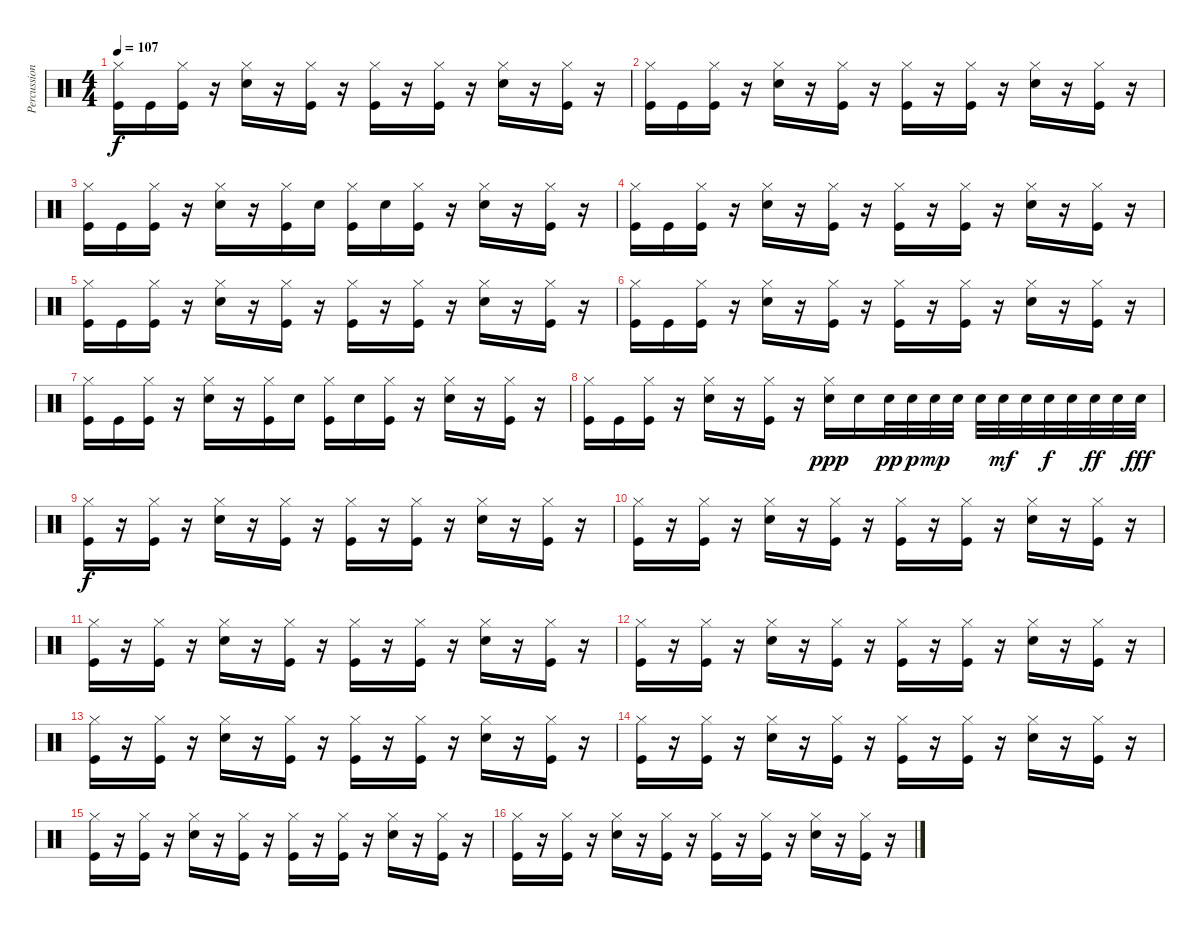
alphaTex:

\track ("Percussions" "Percussion") {instrument percussion}
\staff {score}
\articulation defaults
\ts (4 4)
\tempo 107
\clef neutral
\ks c
("Hi-Hat (closed)" "Kick (hit)").16{dy f} "Kick (hit)".16 ("Hi-Hat (closed)" "Kick (hit)").16 r.16 ("Hi-Hat (closed)" "Electric Snare (hit)").16 r.16 ("Hi-Hat (closed)" "Kick (hit)").16 r.16 ("Hi-Hat (closed)" "Kick (hit)").16 r.16 ("Hi-Hat (closed)" "Kick (hit)").16 r.16 ("Hi-Hat (closed)" "Electric Snare (hit)").16 r.16 ("Hi-Hat (closed)" "Kick (hit)").16 r.16 |
("Hi-Hat (closed)" "Kick (hit)").16 "Kick (hit)".16 ("Hi-Hat (closed)" "Kick (hit)").16 r.16 ("Hi-Hat (closed)" "Electric Snare (hit)").16 r.16 ("Hi-Hat (closed)" "Kick (hit)").16 r.16 ("Hi-Hat (closed)" "Kick (hit)").16 r.16 ("Hi-Hat (closed)" "Kick (hit)").16 r.16 ("Hi-Hat (closed)" "Electric Snare (hit)").16 r.16 ("Hi-Hat (closed)" "Kick (hit)").16 r.16 |
("Hi-Hat (closed)" "Kick (hit)").16 "Kick (hit)".16 ("Hi-Hat (closed)" "Kick (hit)").16 r.16 ("Hi-Hat (closed)" "Electric Snare (hit)").16 r.16 ("Hi-Hat (closed)" "Kick (hit)").16 "Electric Snare (hit)".16 ("Hi-Hat (closed)" "Kick (hit)").16 "Electric Snare (hit)".16 ("Hi-Hat (closed)" "Kick (hit)").16 r.16 ("Hi-Hat (closed)" "Electric Snare (hit)").16 r.16 ("Hi-Hat (closed)" "Kick (hit)").16 r.16 |
("Hi-Hat (closed)" "Kick (hit)").16 "Kick (hit)".16 ("Hi-Hat (closed)" "Kick (hit)").16 r.16 ("Hi-Hat (closed)" "Electric Snare (hit)").16 r.16 ("Hi-Hat (closed)" "Kick (hit)").16 r.16 ("Hi-Hat (closed)" "Kick (hit)").16 r.16 ("Hi-Hat (closed)" "Kick (hit)").16 r.16 ("Hi-Hat (closed)" "Electric Snare (hit)").16 r.16 ("Hi-Hat (closed)" "Kick (hit)").16 r.16 |
("Hi-Hat (closed)" "Kick (hit)").16 "Kick (hit)".16 ("Hi-Hat (closed)" "Kick (hit)").16 r.16 ("Hi-Hat (closed)" "Electric Snare (hit)").16 r.16 ("Hi-Hat (closed)" "Kick (hit)").16 r.16 ("Hi-Hat (closed)" "Kick (hit)").16 r.16 ("Hi-Hat (closed)" "Kick (hit)").16 r.16 ("Hi-Hat (closed)" "Electric Snare (hit)").16 r.16 ("Hi-Hat (closed)" "Kick (hit)").16 r.16 |
("Hi-Hat (closed)" "Kick (hit)").16 "Kick (hit)".16 ("Hi-Hat (closed)" "Kick (hit)").16 r.16 ("Hi-Hat (closed)" "Electric Snare (hit)").16 r.16 ("Hi-Hat (closed)" "Kick (hit)").16 r.16 ("Hi-Hat (closed)" "Kick (hit)").16 r.16 ("Hi-Hat (closed)" "Kick (hit)").16 r.16 ("Hi-Hat (closed)" "Electric Snare (hit)").16 r.16 ("Hi-Hat (closed)" "Kick (hit)").16 r.16 |
("Hi-Hat (closed)" "Kick (hit)").16 "Kick (hit)".16 ("Hi-Hat (closed)" "Kick (hit)").16 r.16 ("Hi-Hat (closed)" "Electric Snare (hit)").16 r.16 ("Hi-Hat (closed)" "Kick (hit)").16 "Electric Snare (hit)".16 ("Hi-Hat (closed)" "Kick (hit)").16 "Electric Snare (hit)".16 ("Hi-Hat (closed)" "Kick (hit)").16 r.16 ("Hi-Hat (closed)" "Electric Snare (hit)").16 r.16 ("Hi-Hat (closed)" "Kick (hit)").16 r.16 |
("Hi-Hat (closed)" "Kick (hit)").16 "Kick (hit)".16 ("Hi-Hat (closed)" "Kick (hit)").16 r.16 ("Hi-Hat (closed)" "Electric Snare (hit)").16 r.16 ("Hi-Hat (closed)" "Kick (hit)").16 r.16 ("Hi-Hat (closed)" "Electric Snare (hit)").16{dy ppp} "Electric Snare (hit)".16 "Electric Snare (hit)".32{dy pp} "Electric Snare (hit)".32{dy p} "Electric Snare (hit)".32{dy mp} "Electric Snare (hit)".32 "Electric Snare (hit)".32 "Electric Snare (hit)".32{dy mf} "Electric Snare (hit)".32 "Electric Snare (hit)".32{dy f} "Electric Snare (hit)".32 "Electric Snare (hit)".32{dy ff} "Electric Snare (hit)".32 "Electric Snare (hit)".32{dy fff} |
("Hi-Hat (closed)" "Kick (hit)").16{dy f} r.16 ("Hi-Hat (closed)" "Kick (hit)").16 r.16 ("Hi-Hat (closed)" "Electric Snare (hit)").16 r.16 ("Hi-Hat (closed)" "Kick (hit)").16 r.16 ("Hi-Hat (closed)" "Kick (hit)").16 r.16 ("Hi-Hat (closed)" "Kick (hit)").16 r.16 ("Hi-Hat (closed)" "Electric Snare (hit)").16 r.16 ("Hi-Hat (closed)" "Kick (hit)").16 r.16 |
("Hi-Hat (closed)" "Kick (hit)").16 r.16 ("Hi-Hat (closed)" "Kick (hit)").16 r.16 ("Hi-Hat (closed)" "Electric Snare (hit)").16 r.16 ("Hi-Hat (closed)" "Kick (hit)").16 r.16 ("Hi-Hat (closed)" "Kick (hit)").16 r.16 ("Hi-Hat (closed)" "Kick (hit)").16 r.16 ("Hi-Hat (closed)" "Electric Snare (hit)").16 r.16 ("Hi-Hat (closed)" "Kick (hit)").16 r.16 |
("Hi-Hat (closed)" "Kick (hit)").16 r.16 ("Hi-Hat (closed)" "Kick (hit)").16 r.16 ("Hi-Hat (closed)" "Electric Snare (hit)").16 r.16 ("Hi-Hat (closed)" "Kick (hit)").16 r.16 ("Hi-Hat (closed)" "Kick (hit)").16 r.16 ("Hi-Hat (closed)" "Kick (hit)").16 r.16 ("Hi-Hat (closed)" "Electric Snare (hit)").16 r.16 ("Hi-Hat (closed)" "Kick (hit)").16 r.16 |
("Hi-Hat (closed)" "Kick (hit)").16 r.16 ("Hi-Hat (closed)" "Kick (hit)").16 r.16 ("Hi-Hat (closed)" "Electric Snare (hit)").16 r.16 ("Hi-Hat (closed)" "Kick (hit)").16 r.16 ("Hi-Hat (closed)" "Kick (hit)").16 r.16 ("Hi-Hat (closed)" "Kick (hit)").16 r.16 ("Hi-Hat (closed)" "Electric Snare (hit)").16 r.16 ("Hi-Hat (closed)" "Kick (hit)").16 r.16 |
("Hi-Hat (closed)" "Kick (hit)").16 r.16 ("Hi-Hat (closed)" "Kick (hit)").16 r.16 ("Hi-Hat (closed)" "Electric Snare (hit)").16 r.16 ("Hi-Hat (closed)" "Kick (hit)").16 r.16 ("Hi-Hat (closed)" "Kick (hit)").16 r.16 ("Hi-Hat (closed)" "Kick (hit)").16 r.16 ("Hi-Hat (closed)" "Electric Snare (hit)").16 r.16 ("Hi-Hat (closed)" "Kick (hit)").16 r.16 |
("Hi-Hat (closed)" "Kick (hit)").16 r.16 ("Hi-Hat (closed)" "Kick (hit)").16 r.16 ("Hi-Hat (closed)" "Electric Snare (hit)").16 r.16 ("Hi-Hat (closed)" "Kick (hit)").16 r.16 ("Hi-Hat (closed)" "Kick (hit)").16 r.16 ("Hi-Hat (closed)" "Kick (hit)").16 r.16 ("Hi-Hat (closed)" "Electric Snare (hit)").16 r.16 ("Hi-Hat (closed)" "Kick (hit)").16 r.16 |
("Hi-Hat (closed)" "Kick (hit)").16 r.16 ("Hi-Hat (closed)" "Kick (hit)").16 r.16 ("Hi-Hat (closed)" "Electric Snare (hit)").16 r.16 ("Hi-Hat (closed)" "Kick (hit)").16 r.16 ("Hi-Hat (closed)" "Kick (hit)").16 r.16 ("Hi-Hat (closed)" "Kick (hit)").16 r.16 ("Hi-Hat (closed)" "Electric Snare (hit)").16 r.16 ("Hi-Hat (closed)" "Kick (hit)").16 r.16 |
("Hi-Hat (closed)" "Kick (hit)").16 r.16 ("Hi-Hat (closed)" "Kick (hit)").16 r.16 ("Hi-Hat (closed)" "Electric Snare (hit)").16 r.16 ("Hi-Hat (closed)" "Kick (hit)").16 r.16 ("Hi-Hat (closed)" "Kick (hit)").16 r.16 ("Hi-Hat (closed)" "Kick (hit)").16 r.16 ("Hi-Hat (closed)" "Electric Snare (hit)").16 r.16 ("Hi-Hat (closed)" "Kick (hit)").16 r.16
